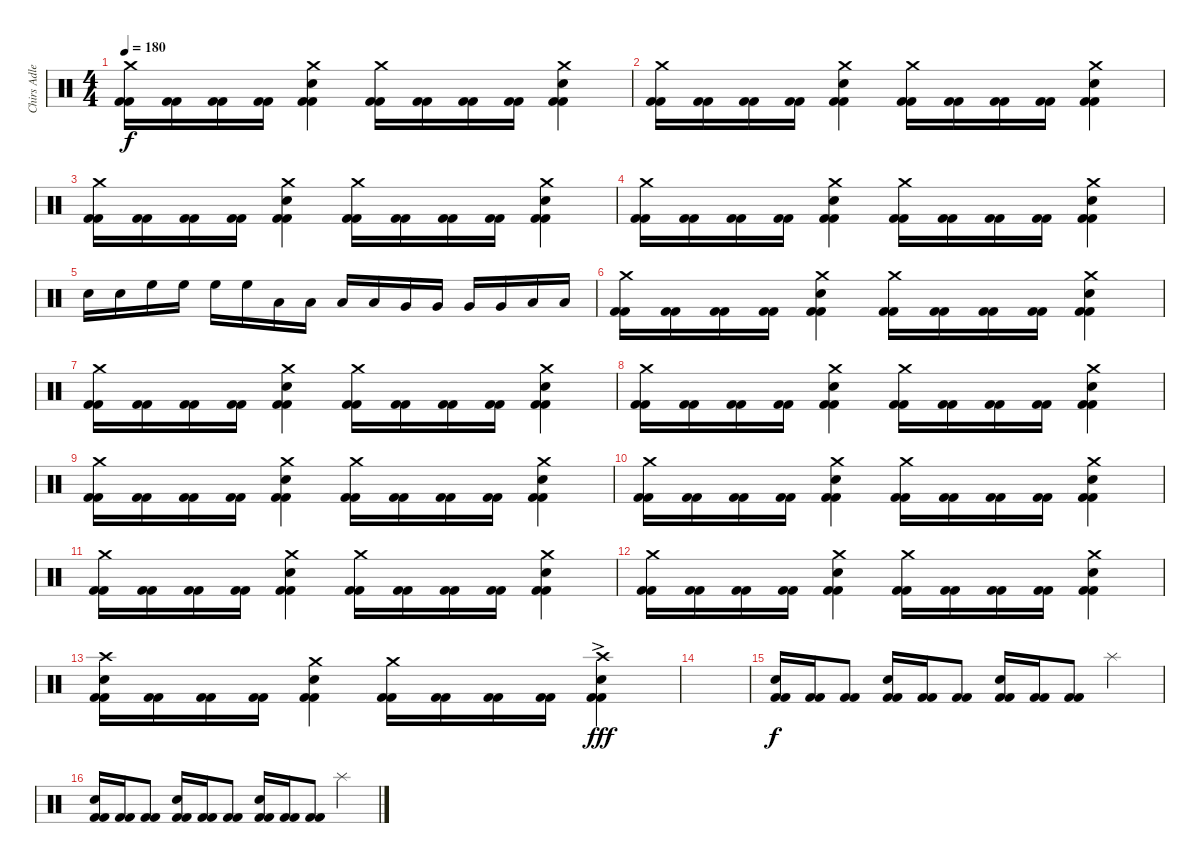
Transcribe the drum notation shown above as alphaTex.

\track ("Chirs Adler" "Chirs Adle") {instrument percussion}
\staff {score}
\articulation defaults
\ts (4 4)
\tempo 180
\clef neutral
\ks c
("Crash medium (hit)" "Kick (hit) 2" "Kick (hit) 2").16{dy f} ("Kick (hit) 2" "Kick (hit) 2").16 ("Kick (hit) 2" "Kick (hit) 2").16 ("Kick (hit) 2" "Kick (hit) 2").16 ("Crash medium (hit)" "Electric Snare (hit)" "Kick (hit) 2" "Kick (hit) 2").4 ("Crash medium (hit)" "Kick (hit) 2" "Kick (hit) 2").16 ("Kick (hit) 2" "Kick (hit) 2").16 ("Kick (hit) 2" "Kick (hit) 2").16 ("Kick (hit) 2" "Kick (hit) 2").16 ("Crash medium (hit)" "Electric Snare (hit)" "Kick (hit) 2" "Kick (hit) 2").4 |
("Crash medium (hit)" "Kick (hit) 2" "Kick (hit) 2").16 ("Kick (hit) 2" "Kick (hit) 2").16 ("Kick (hit) 2" "Kick (hit) 2").16 ("Kick (hit) 2" "Kick (hit) 2").16 ("Crash medium (hit)" "Electric Snare (hit)" "Kick (hit) 2" "Kick (hit) 2").4 ("Crash medium (hit)" "Kick (hit) 2" "Kick (hit) 2").16 ("Kick (hit) 2" "Kick (hit) 2").16 ("Kick (hit) 2" "Kick (hit) 2").16 ("Kick (hit) 2" "Kick (hit) 2").16 ("Crash medium (hit)" "Electric Snare (hit)" "Kick (hit) 2" "Kick (hit) 2").4 |
("Crash medium (hit)" "Kick (hit) 2" "Kick (hit) 2").16 ("Kick (hit) 2" "Kick (hit) 2").16 ("Kick (hit) 2" "Kick (hit) 2").16 ("Kick (hit) 2" "Kick (hit) 2").16 ("Crash medium (hit)" "Electric Snare (hit)" "Kick (hit) 2" "Kick (hit) 2").4 ("Crash medium (hit)" "Kick (hit) 2" "Kick (hit) 2").16 ("Kick (hit) 2" "Kick (hit) 2").16 ("Kick (hit) 2" "Kick (hit) 2").16 ("Kick (hit) 2" "Kick (hit) 2").16 ("Crash medium (hit)" "Electric Snare (hit)" "Kick (hit) 2" "Kick (hit) 2").4 |
("Crash medium (hit)" "Kick (hit) 2" "Kick (hit) 2").16 ("Kick (hit) 2" "Kick (hit) 2").16 ("Kick (hit) 2" "Kick (hit) 2").16 ("Kick (hit) 2" "Kick (hit) 2").16 ("Crash medium (hit)" "Electric Snare (hit)" "Kick (hit) 2" "Kick (hit) 2").4 ("Crash medium (hit)" "Kick (hit) 2" "Kick (hit) 2").16 ("Kick (hit) 2" "Kick (hit) 2").16 ("Kick (hit) 2" "Kick (hit) 2").16 ("Kick (hit) 2" "Kick (hit) 2").16 ("Crash medium (hit)" "Electric Snare (hit)" "Kick (hit) 2" "Kick (hit) 2").4 |
"Electric Snare (hit)".16 "Electric Snare (hit)".16 "High Floor Tom (hit)".16 "High Floor Tom (hit)".16 "High Floor Tom (hit)".16 "High Floor Tom (hit)".16 "Low Tom (hit)".16 "Low Tom (hit)".16 "Low Tom (hit)".16 "Low Tom (hit)".16 "Very Low Tom (hit)".16 "Very Low Tom (hit)".16 "Very Low Tom (hit)".16 "Very Low Tom (hit)".16 "Low Floor Tom (hit)".16 "Low Floor Tom (hit)".16 |
("Crash medium (hit)" "Kick (hit) 2" "Kick (hit) 2").16 ("Kick (hit) 2" "Kick (hit) 2").16 ("Kick (hit) 2" "Kick (hit) 2").16 ("Kick (hit) 2" "Kick (hit) 2").16 ("Crash medium (hit)" "Electric Snare (hit)" "Kick (hit) 2" "Kick (hit) 2").4 ("Crash medium (hit)" "Kick (hit) 2" "Kick (hit) 2").16 ("Kick (hit) 2" "Kick (hit) 2").16 ("Kick (hit) 2" "Kick (hit) 2").16 ("Kick (hit) 2" "Kick (hit) 2").16 ("Crash medium (hit)" "Electric Snare (hit)" "Kick (hit) 2" "Kick (hit) 2").4 |
("Crash medium (hit)" "Kick (hit) 2" "Kick (hit) 2").16 ("Kick (hit) 2" "Kick (hit) 2").16 ("Kick (hit) 2" "Kick (hit) 2").16 ("Kick (hit) 2" "Kick (hit) 2").16 ("Crash medium (hit)" "Electric Snare (hit)" "Kick (hit) 2" "Kick (hit) 2").4 ("Crash medium (hit)" "Kick (hit) 2" "Kick (hit) 2").16 ("Kick (hit) 2" "Kick (hit) 2").16 ("Kick (hit) 2" "Kick (hit) 2").16 ("Kick (hit) 2" "Kick (hit) 2").16 ("Crash medium (hit)" "Electric Snare (hit)" "Kick (hit) 2" "Kick (hit) 2").4 |
("Crash medium (hit)" "Kick (hit) 2" "Kick (hit) 2").16 ("Kick (hit) 2" "Kick (hit) 2").16 ("Kick (hit) 2" "Kick (hit) 2").16 ("Kick (hit) 2" "Kick (hit) 2").16 ("Crash medium (hit)" "Electric Snare (hit)" "Kick (hit) 2" "Kick (hit) 2").4 ("Crash medium (hit)" "Kick (hit) 2" "Kick (hit) 2").16 ("Kick (hit) 2" "Kick (hit) 2").16 ("Kick (hit) 2" "Kick (hit) 2").16 ("Kick (hit) 2" "Kick (hit) 2").16 ("Crash medium (hit)" "Electric Snare (hit)" "Kick (hit) 2" "Kick (hit) 2").4 |
("Crash medium (hit)" "Kick (hit) 2" "Kick (hit) 2").16 ("Kick (hit) 2" "Kick (hit) 2").16 ("Kick (hit) 2" "Kick (hit) 2").16 ("Kick (hit) 2" "Kick (hit) 2").16 ("Crash medium (hit)" "Electric Snare (hit)" "Kick (hit) 2" "Kick (hit) 2").4 ("Crash medium (hit)" "Kick (hit) 2" "Kick (hit) 2").16 ("Kick (hit) 2" "Kick (hit) 2").16 ("Kick (hit) 2" "Kick (hit) 2").16 ("Kick (hit) 2" "Kick (hit) 2").16 ("Crash medium (hit)" "Electric Snare (hit)" "Kick (hit) 2" "Kick (hit) 2").4 |
("Crash medium (hit)" "Kick (hit) 2" "Kick (hit) 2").16 ("Kick (hit) 2" "Kick (hit) 2").16 ("Kick (hit) 2" "Kick (hit) 2").16 ("Kick (hit) 2" "Kick (hit) 2").16 ("Crash medium (hit)" "Electric Snare (hit)" "Kick (hit) 2" "Kick (hit) 2").4 ("Crash medium (hit)" "Kick (hit) 2" "Kick (hit) 2").16 ("Kick (hit) 2" "Kick (hit) 2").16 ("Kick (hit) 2" "Kick (hit) 2").16 ("Kick (hit) 2" "Kick (hit) 2").16 ("Crash medium (hit)" "Electric Snare (hit)" "Kick (hit) 2" "Kick (hit) 2").4 |
("Crash medium (hit)" "Kick (hit) 2" "Kick (hit) 2").16 ("Kick (hit) 2" "Kick (hit) 2").16 ("Kick (hit) 2" "Kick (hit) 2").16 ("Kick (hit) 2" "Kick (hit) 2").16 ("Crash medium (hit)" "Electric Snare (hit)" "Kick (hit) 2" "Kick (hit) 2").4 ("Crash medium (hit)" "Kick (hit) 2" "Kick (hit) 2").16 ("Kick (hit) 2" "Kick (hit) 2").16 ("Kick (hit) 2" "Kick (hit) 2").16 ("Kick (hit) 2" "Kick (hit) 2").16 ("Crash medium (hit)" "Electric Snare (hit)" "Kick (hit) 2" "Kick (hit) 2").4 |
("Crash medium (hit)" "Kick (hit) 2" "Kick (hit) 2").16 ("Kick (hit) 2" "Kick (hit) 2").16 ("Kick (hit) 2" "Kick (hit) 2").16 ("Kick (hit) 2" "Kick (hit) 2").16 ("Crash medium (hit)" "Electric Snare (hit)" "Kick (hit) 2" "Kick (hit) 2").4 ("Crash medium (hit)" "Kick (hit) 2" "Kick (hit) 2").16 ("Kick (hit) 2" "Kick (hit) 2").16 ("Kick (hit) 2" "Kick (hit) 2").16 ("Kick (hit) 2" "Kick (hit) 2").16 ("Crash medium (hit)" "Electric Snare (hit)" "Kick (hit) 2" "Kick (hit) 2").4 |
("Crash high (hit)" "Electric Snare (hit)" "Kick (hit) 2" "Kick (hit) 2").16 ("Kick (hit) 2" "Kick (hit) 2").16 ("Kick (hit) 2" "Kick (hit) 2").16 ("Kick (hit) 2" "Kick (hit) 2").16 ("Crash medium (hit)" "Electric Snare (hit)" "Kick (hit) 2" "Kick (hit) 2").4 ("Crash medium (hit)" "Kick (hit) 2" "Kick (hit) 2").16 ("Kick (hit) 2" "Kick (hit) 2").16 ("Kick (hit) 2" "Kick (hit) 2").16 ("Kick (hit) 2" "Kick (hit) 2").16 ("Crash high (hit)"{ac} "Electric Snare (hit)" "Kick (hit) 2" "Kick (hit) 2").4{dy fff} |
\section ("" "")
|
("Electric Snare (hit)" "Kick (hit) 2" "Kick (hit) 2").16{dy f} ("Kick (hit) 2" "Kick (hit) 2").16 ("Kick (hit) 2" "Kick (hit) 2").8 ("Electric Snare (hit)" "Kick (hit) 2" "Kick (hit) 2").16 ("Kick (hit) 2" "Kick (hit) 2").16 ("Kick (hit) 2" "Kick (hit) 2").8 ("Electric Snare (hit)" "Kick (hit) 2" "Kick (hit) 2").16 ("Kick (hit) 2" "Kick (hit) 2").16 ("Kick (hit) 2" "Kick (hit) 2").8 "Splash (hit)".4 |
("Electric Snare (hit)" "Kick (hit) 2" "Kick (hit) 2").16 ("Kick (hit) 2" "Kick (hit) 2").16 ("Kick (hit) 2" "Kick (hit) 2").8 ("Electric Snare (hit)" "Kick (hit) 2" "Kick (hit) 2").16 ("Kick (hit) 2" "Kick (hit) 2").16 ("Kick (hit) 2" "Kick (hit) 2").8 ("Electric Snare (hit)" "Kick (hit) 2" "Kick (hit) 2").16 ("Kick (hit) 2" "Kick (hit) 2").16 ("Kick (hit) 2" "Kick (hit) 2").8 "Splash (hit)".4
